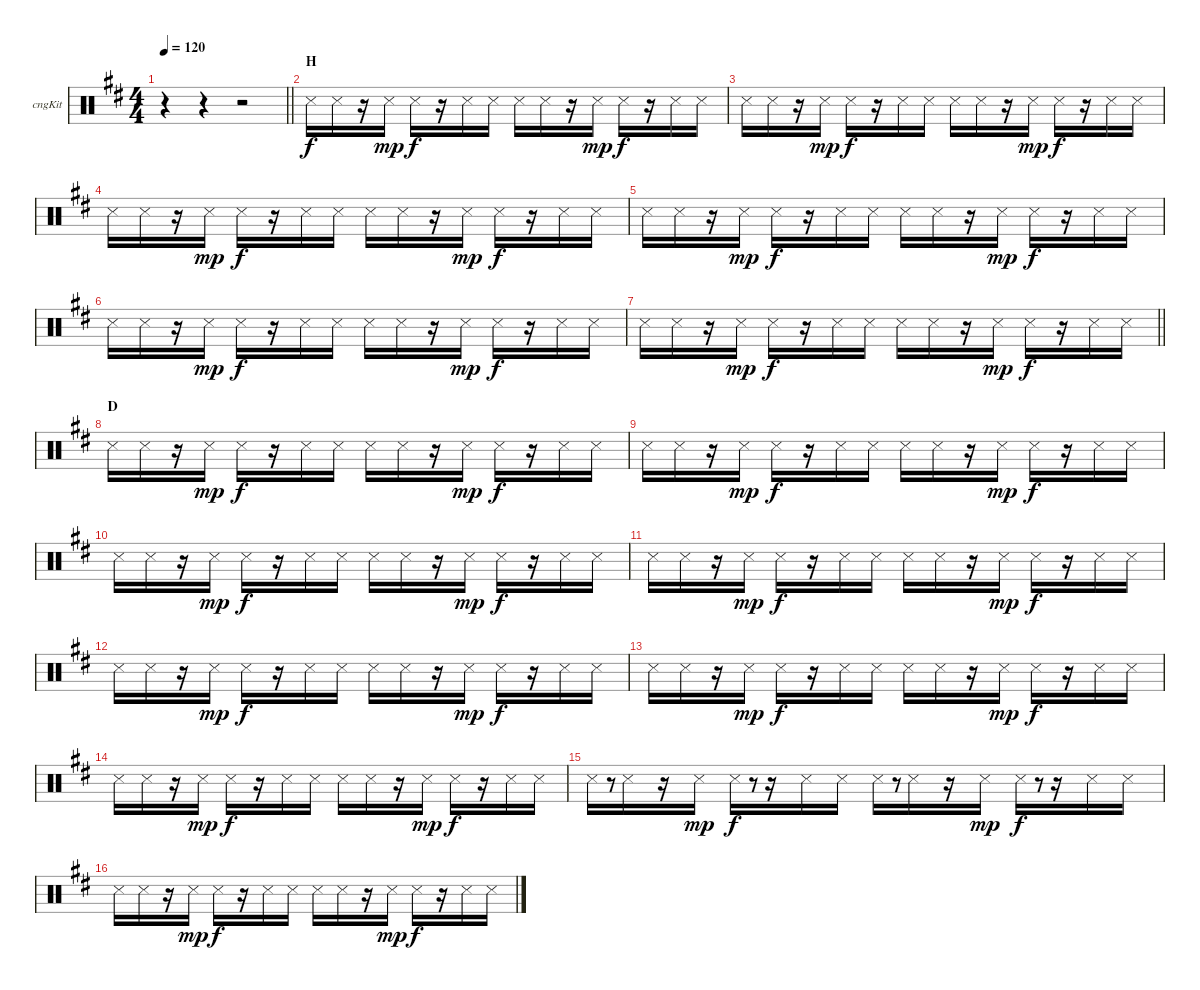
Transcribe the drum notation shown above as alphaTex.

\bracketExtendMode groupsimilarinstruments
\firstSystemTrackNameOrientation horizontal
\otherSystemsTrackNameOrientation horizontal
\track ("Congas" "cngKit") {instrument percussion}
\staff {score}
\articulation defaults
\ts (4 4)
\tempo 120
\clef neutral
\barLineRight lightlight
\ks d
r.4{dy f} r.4 r.2 |
\section ("" "H")
"Snare (side stick) 3".16 "Snare (side stick) 3".16 r.16 "Snare (side stick) 3".16{dy mp} "Snare (side stick) 3".16{dy f} r.16 "Snare (side stick) 3".16 "Snare (side stick) 3".16 "Snare (side stick) 3".16 "Snare (side stick) 3".16 r.16 "Snare (side stick) 3".16{dy mp} "Snare (side stick) 3".16{dy f} r.16 "Snare (side stick) 3".16 "Snare (side stick) 3".16 |
"Snare (side stick) 3".16 "Snare (side stick) 3".16 r.16 "Snare (side stick) 3".16{dy mp} "Snare (side stick) 3".16{dy f} r.16 "Snare (side stick) 3".16 "Snare (side stick) 3".16 "Snare (side stick) 3".16 "Snare (side stick) 3".16 r.16 "Snare (side stick) 3".16{dy mp} "Snare (side stick) 3".16{dy f} r.16 "Snare (side stick) 3".16 "Snare (side stick) 3".16 |
"Snare (side stick) 3".16 "Snare (side stick) 3".16 r.16 "Snare (side stick) 3".16{dy mp} "Snare (side stick) 3".16{dy f} r.16 "Snare (side stick) 3".16 "Snare (side stick) 3".16 "Snare (side stick) 3".16 "Snare (side stick) 3".16 r.16 "Snare (side stick) 3".16{dy mp} "Snare (side stick) 3".16{dy f} r.16 "Snare (side stick) 3".16 "Snare (side stick) 3".16 |
"Snare (side stick) 3".16 "Snare (side stick) 3".16 r.16 "Snare (side stick) 3".16{dy mp} "Snare (side stick) 3".16{dy f} r.16 "Snare (side stick) 3".16 "Snare (side stick) 3".16 "Snare (side stick) 3".16 "Snare (side stick) 3".16 r.16 "Snare (side stick) 3".16{dy mp} "Snare (side stick) 3".16{dy f} r.16 "Snare (side stick) 3".16 "Snare (side stick) 3".16 |
"Snare (side stick) 3".16 "Snare (side stick) 3".16 r.16 "Snare (side stick) 3".16{dy mp} "Snare (side stick) 3".16{dy f} r.16 "Snare (side stick) 3".16 "Snare (side stick) 3".16 "Snare (side stick) 3".16 "Snare (side stick) 3".16 r.16 "Snare (side stick) 3".16{dy mp} "Snare (side stick) 3".16{dy f} r.16 "Snare (side stick) 3".16 "Snare (side stick) 3".16 |
\barLineRight lightlight "Snare (side stick) 3".16 "Snare (side stick) 3".16
r.16 "Snare (side stick) 3".16{dy mp} "Snare (side stick) 3".16{dy f} r.16 "Snare (side stick) 3".16 "Snare (side stick) 3".16 "Snare (side stick) 3".16 "Snare (side stick) 3".16 r.16 "Snare (side stick) 3".16{dy mp} "Snare (side stick) 3".16{dy f} r.16 "Snare (side stick) 3".16 "Snare (side stick) 3".16 |
\section ("" "D")
"Snare (side stick) 3".16 "Snare (side stick) 3".16 r.16 "Snare (side stick) 3".16{dy mp} "Snare (side stick) 3".16{dy f} r.16 "Snare (side stick) 3".16 "Snare (side stick) 3".16 "Snare (side stick) 3".16 "Snare (side stick) 3".16 r.16 "Snare (side stick) 3".16{dy mp} "Snare (side stick) 3".16{dy f} r.16 "Snare (side stick) 3".16 "Snare (side stick) 3".16 |
"Snare (side stick) 3".16 "Snare (side stick) 3".16 r.16 "Snare (side stick) 3".16{dy mp} "Snare (side stick) 3".16{dy f} r.16 "Snare (side stick) 3".16 "Snare (side stick) 3".16 "Snare (side stick) 3".16 "Snare (side stick) 3".16 r.16 "Snare (side stick) 3".16{dy mp} "Snare (side stick) 3".16{dy f} r.16 "Snare (side stick) 3".16 "Snare (side stick) 3".16 |
"Snare (side stick) 3".16 "Snare (side stick) 3".16 r.16 "Snare (side stick) 3".16{dy mp} "Snare (side stick) 3".16{dy f} r.16 "Snare (side stick) 3".16 "Snare (side stick) 3".16 "Snare (side stick) 3".16 "Snare (side stick) 3".16 r.16 "Snare (side stick) 3".16{dy mp} "Snare (side stick) 3".16{dy f} r.16 "Snare (side stick) 3".16 "Snare (side stick) 3".16 |
"Snare (side stick) 3".16 "Snare (side stick) 3".16 r.16 "Snare (side stick) 3".16{dy mp} "Snare (side stick) 3".16{dy f} r.16 "Snare (side stick) 3".16 "Snare (side stick) 3".16 "Snare (side stick) 3".16 "Snare (side stick) 3".16 r.16 "Snare (side stick) 3".16{dy mp} "Snare (side stick) 3".16{dy f} r.16 "Snare (side stick) 3".16 "Snare (side stick) 3".16 |
"Snare (side stick) 3".16 "Snare (side stick) 3".16 r.16 "Snare (side stick) 3".16{dy mp} "Snare (side stick) 3".16{dy f} r.16 "Snare (side stick) 3".16 "Snare (side stick) 3".16 "Snare (side stick) 3".16 "Snare (side stick) 3".16 r.16 "Snare (side stick) 3".16{dy mp} "Snare (side stick) 3".16{dy f} r.16 "Snare (side stick) 3".16 "Snare (side stick) 3".16 |
"Snare (side stick) 3".16 "Snare (side stick) 3".16 r.16 "Snare (side stick) 3".16{dy mp} "Snare (side stick) 3".16{dy f} r.16 "Snare (side stick) 3".16 "Snare (side stick) 3".16 "Snare (side stick) 3".16 "Snare (side stick) 3".16 r.16 "Snare (side stick) 3".16{dy mp} "Snare (side stick) 3".16{dy f} r.16 "Snare (side stick) 3".16 "Snare (side stick) 3".16 |
"Snare (side stick) 3".16 "Snare (side stick) 3".16 r.16 "Snare (side stick) 3".16{dy mp} "Snare (side stick) 3".16{dy f} r.16 "Snare (side stick) 3".16 "Snare (side stick) 3".16 "Snare (side stick) 3".16 "Snare (side stick) 3".16 r.16 "Snare (side stick) 3".16{dy mp} "Snare (side stick) 3".16{dy f} r.16 "Snare (side stick) 3".16 "Snare (side stick) 3".16 |
"Snare (side stick) 3".16 r.8{gr} "Snare (side stick) 3".16 r.16 "Snare (side stick) 3".16{dy mp} "Snare (side stick) 3".16{dy f} r.8{gr} r.16 "Snare (side stick) 3".16 "Snare (side stick) 3".16 "Snare (side stick) 3".16 r.8{gr} "Snare (side stick) 3".16 r.16 "Snare (side stick) 3".16{dy mp} "Snare (side stick) 3".16{dy f} r.8{gr} r.16 "Snare (side stick) 3".16 "Snare (side stick) 3".16 |
"Snare (side stick) 3".16 "Snare (side stick) 3".16 r.16 "Snare (side stick) 3".16{dy mp} "Snare (side stick) 3".16{dy f} r.16 "Snare (side stick) 3".16 "Snare (side stick) 3".16 "Snare (side stick) 3".16 "Snare (side stick) 3".16 r.16 "Snare (side stick) 3".16{dy mp} "Snare (side stick) 3".16{dy f} r.16 "Snare (side stick) 3".16 "Snare (side stick) 3".16
